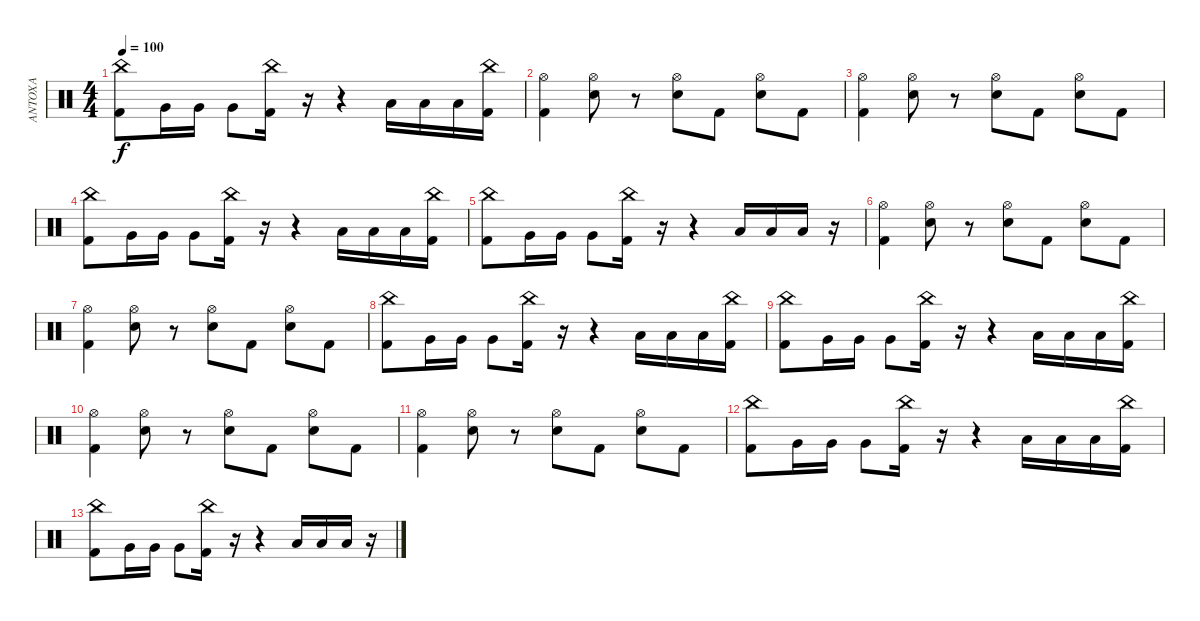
\track ("ANTOXA" "ANTOXA") {instrument percussion}
\staff {score}
\articulation defaults
\ts (4 4)
\tempo 100
\clef neutral
\ks c
("Kick (hit) 2" "China (hit)").8{dy f} "Very Low Tom (hit)".16 "Very Low Tom (hit)".16 "Very Low Tom (hit)".8 ("Kick (hit) 2" "China (hit)").16 r.16 r.4 "Low Floor Tom (hit)".16 "Low Floor Tom (hit)".16 "Low Floor Tom (hit)".16 ("Kick (hit) 2" "China (hit)").16 |
("Kick (hit) 2" "Hi-Hat (open)").4 ("Hi-Hat (open)" "Electric Snare (hit)").8 r.8 ("Hi-Hat (open)" "Electric Snare (hit)").8 "Kick (hit) 2".8 ("Hi-Hat (open)" "Electric Snare (hit)").8 "Kick (hit) 2".8 |
("Kick (hit) 2" "Hi-Hat (open)").4 ("Hi-Hat (open)" "Electric Snare (hit)").8 r.8 ("Hi-Hat (open)" "Electric Snare (hit)").8 "Kick (hit) 2".8 ("Hi-Hat (open)" "Electric Snare (hit)").8 "Kick (hit) 2".8 |
("Kick (hit) 2" "China (hit)").8 "Very Low Tom (hit)".16 "Very Low Tom (hit)".16 "Very Low Tom (hit)".8 ("Kick (hit) 2" "China (hit)").16 r.16 r.4 "Low Floor Tom (hit)".16 "Low Floor Tom (hit)".16 "Low Floor Tom (hit)".16 ("Kick (hit) 2" "China (hit)").16 |
("Kick (hit) 2" "China (hit)").8 "Very Low Tom (hit)".16 "Very Low Tom (hit)".16 "Very Low Tom (hit)".8 ("Kick (hit) 2" "China (hit)").16 r.16 r.4 "Low Floor Tom (hit)".16 "Low Floor Tom (hit)".16 "Low Floor Tom (hit)".16 r.16 |
("Kick (hit) 2" "Hi-Hat (open)").4 ("Hi-Hat (open)" "Electric Snare (hit)").8 r.8 ("Hi-Hat (open)" "Electric Snare (hit)").8 "Kick (hit) 2".8 ("Hi-Hat (open)" "Electric Snare (hit)").8 "Kick (hit) 2".8 |
("Kick (hit) 2" "Hi-Hat (open)").4 ("Hi-Hat (open)" "Electric Snare (hit)").8 r.8 ("Hi-Hat (open)" "Electric Snare (hit)").8 "Kick (hit) 2".8 ("Hi-Hat (open)" "Electric Snare (hit)").8 "Kick (hit) 2".8 |
("Kick (hit) 2" "China (hit)").8 "Very Low Tom (hit)".16 "Very Low Tom (hit)".16 "Very Low Tom (hit)".8 ("Kick (hit) 2" "China (hit)").16 r.16 r.4 "Low Floor Tom (hit)".16 "Low Floor Tom (hit)".16 "Low Floor Tom (hit)".16 ("Kick (hit) 2" "China (hit)").16 |
("Kick (hit) 2" "China (hit)").8 "Very Low Tom (hit)".16 "Very Low Tom (hit)".16 "Very Low Tom (hit)".8 ("Kick (hit) 2" "China (hit)").16 r.16 r.4 "Low Floor Tom (hit)".16 "Low Floor Tom (hit)".16 "Low Floor Tom (hit)".16 ("Kick (hit) 2" "China (hit)").16 |
("Kick (hit) 2" "Hi-Hat (open)").4 ("Hi-Hat (open)" "Electric Snare (hit)").8 r.8 ("Hi-Hat (open)" "Electric Snare (hit)").8 "Kick (hit) 2".8 ("Hi-Hat (open)" "Electric Snare (hit)").8 "Kick (hit) 2".8 |
("Kick (hit) 2" "Hi-Hat (open)").4 ("Hi-Hat (open)" "Electric Snare (hit)").8 r.8 ("Hi-Hat (open)" "Electric Snare (hit)").8 "Kick (hit) 2".8 ("Hi-Hat (open)" "Electric Snare (hit)").8 "Kick (hit) 2".8 |
("Kick (hit) 2" "China (hit)").8 "Very Low Tom (hit)".16 "Very Low Tom (hit)".16 "Very Low Tom (hit)".8 ("Kick (hit) 2" "China (hit)").16 r.16 r.4 "Low Floor Tom (hit)".16 "Low Floor Tom (hit)".16 "Low Floor Tom (hit)".16 ("Kick (hit) 2" "China (hit)").16 |
("Kick (hit) 2" "China (hit)").8 "Very Low Tom (hit)".16 "Very Low Tom (hit)".16 "Very Low Tom (hit)".8 ("Kick (hit) 2" "China (hit)").16 r.16 r.4 "Low Floor Tom (hit)".16 "Low Floor Tom (hit)".16 "Low Floor Tom (hit)".16 r.16
